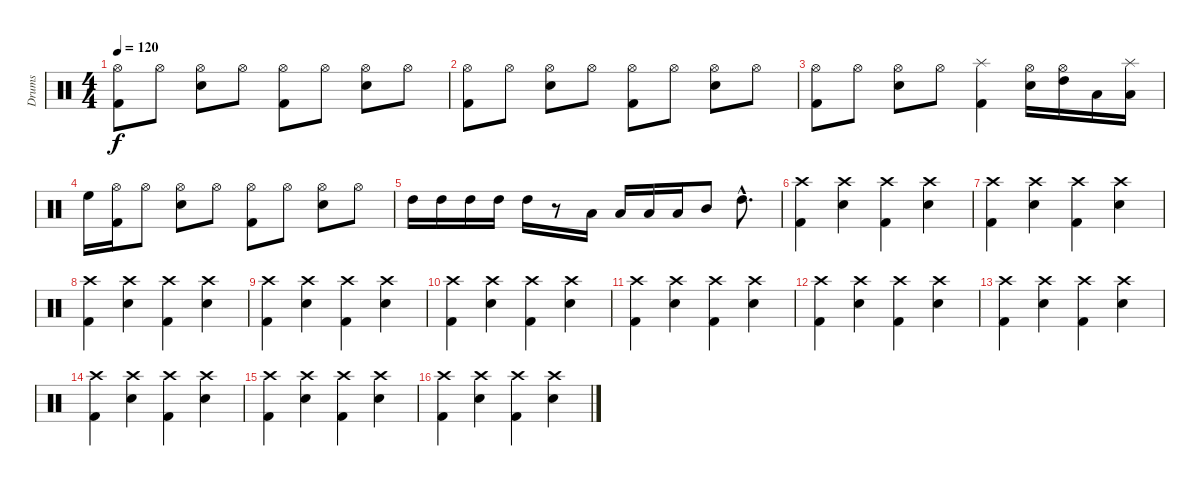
\track ("Drums" "Drums") {instrument percussion}
\staff {score}
\articulation defaults
\ts (4 4)
\tempo 120
\clef neutral
\ks c
("Kick (hit) 2" "Hi-Hat (open)").8{dy f} "Hi-Hat (open)".8 ("Snare (hit) 2" "Hi-Hat (open)").8 "Hi-Hat (open)".8 ("Kick (hit) 2" "Hi-Hat (open)").8 "Hi-Hat (open)".8 ("Snare (hit) 2" "Hi-Hat (open)").8 "Hi-Hat (open)".8 |
("Kick (hit) 2" "Hi-Hat (open)").8 "Hi-Hat (open)".8 ("Snare (hit) 2" "Hi-Hat (open)").8 "Hi-Hat (open)".8 ("Kick (hit) 2" "Hi-Hat (open)").8 "Hi-Hat (open)".8 ("Snare (hit) 2" "Hi-Hat (open)").8 "Hi-Hat (open)".8 |
("Kick (hit) 2" "Hi-Hat (open)").8 "Hi-Hat (open)".8 ("Snare (hit) 2" "Hi-Hat (open)").8 "Hi-Hat (open)".8 ("Kick (hit) 2" "Splash (hit)").4 ("Snare (hit) 2" "Hi-Hat (open)").16 ("High Tom (hit)" "Hi-Hat (open)").16 "Low Tom (hit)".16 ("Low Floor Tom (hit)" "Splash (hit)").16 |
"High Floor Tom (hit)".16 ("Kick (hit) 2" "Hi-Hat (open)").16 "Hi-Hat (open)".8 ("Snare (hit) 2" "Hi-Hat (open)").8 "Hi-Hat (open)".8 ("Kick (hit) 2" "Hi-Hat (open)").8 "Hi-Hat (open)".8 ("Snare (hit) 2" "Hi-Hat (open)").8 "Hi-Hat (open)".8 |
"High Tom (hit)".16 "High Tom (hit)".16 "High Tom (hit)".16 "High Tom (hit)".16 "High Tom (hit)".16 r.8 "Low Tom (hit)".16 "Low Tom (hit)".16 "Low Tom (hit)".16 "Low Tom (hit)".16 "Mid Tom (hit)".8 "High Tom (hit)"{hac}.8{d} |
("Kick (hit) 2" "Crash high (hit)").4 ("Snare (hit) 2" "Crash high (hit)").4 ("Kick (hit) 2" "Crash high (hit)").4 ("Snare (hit) 2" "Crash high (hit)").4 |
("Kick (hit) 2" "Crash high (hit)").4 ("Snare (hit) 2" "Crash high (hit)").4 ("Kick (hit) 2" "Crash high (hit)").4 ("Snare (hit) 2" "Crash high (hit)").4 |
("Kick (hit) 2" "Crash high (hit)").4 ("Snare (hit) 2" "Crash high (hit)").4 ("Kick (hit) 2" "Crash high (hit)").4 ("Snare (hit) 2" "Crash high (hit)").4 |
("Kick (hit) 2" "Crash high (hit)").4 ("Snare (hit) 2" "Crash high (hit)").4 ("Kick (hit) 2" "Crash high (hit)").4 ("Snare (hit) 2" "Crash high (hit)").4 |
("Kick (hit) 2" "Crash high (hit)").4 ("Snare (hit) 2" "Crash high (hit)").4 ("Kick (hit) 2" "Crash high (hit)").4 ("Snare (hit) 2" "Crash high (hit)").4 |
("Kick (hit) 2" "Crash high (hit)").4 ("Snare (hit) 2" "Crash high (hit)").4 ("Kick (hit) 2" "Crash high (hit)").4 ("Snare (hit) 2" "Crash high (hit)").4 |
("Kick (hit) 2" "Crash high (hit)").4 ("Snare (hit) 2" "Crash high (hit)").4 ("Kick (hit) 2" "Crash high (hit)").4 ("Snare (hit) 2" "Crash high (hit)").4 |
("Kick (hit) 2" "Crash high (hit)").4 ("Snare (hit) 2" "Crash high (hit)").4 ("Kick (hit) 2" "Crash high (hit)").4 ("Snare (hit) 2" "Crash high (hit)").4 |
("Kick (hit) 2" "Crash high (hit)").4 ("Snare (hit) 2" "Crash high (hit)").4 ("Kick (hit) 2" "Crash high (hit)").4 ("Snare (hit) 2" "Crash high (hit)").4 |
("Kick (hit) 2" "Crash high (hit)").4 ("Snare (hit) 2" "Crash high (hit)").4 ("Kick (hit) 2" "Crash high (hit)").4 ("Snare (hit) 2" "Crash high (hit)").4 |
("Kick (hit) 2" "Crash high (hit)").4 ("Snare (hit) 2" "Crash high (hit)").4 ("Kick (hit) 2" "Crash high (hit)").4 ("Snare (hit) 2" "Crash high (hit)").4
